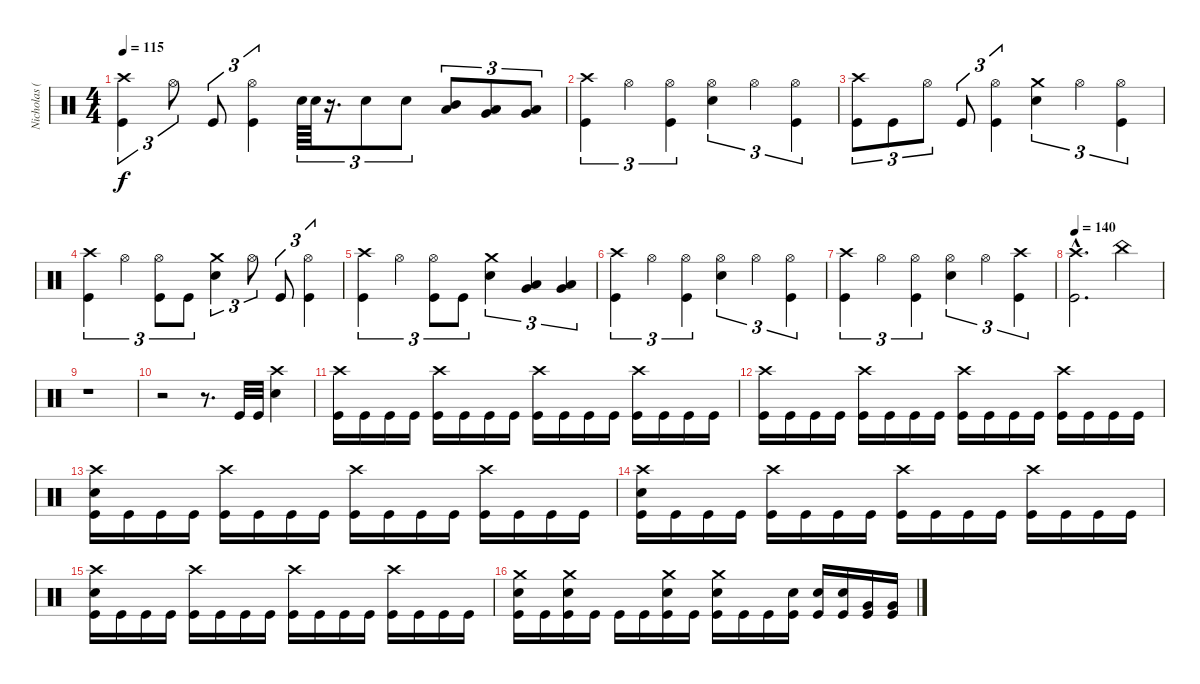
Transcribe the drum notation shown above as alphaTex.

\track ("Nicholas (Drums)" "Nicholas (") {instrument percussion}
\staff {score}
\articulation defaults
\ts (4 4)
\tempo 115
\clef neutral
\ks c
("Crash high (hit)" "Kick (hit)").4{tu (3 2) dy f} "Hi-Hat (open)".8{tu (3 2)} "Kick (hit)".8{tu (3 2)} ("Hi-Hat (open)" "Kick (hit)").4{tu (3 2)} "Electric Snare (hit)".64{tu (3 2)} "Electric Snare (hit)".64{tu (3 2)} r.16{d tu (3 2)} "Electric Snare (hit)".8{tu (3 2)} "Electric Snare (hit)".8{tu (3 2)} ("Mid Tom (hit)" "Low Tom (hit)").8{tu (3 2) bu 60} ("Low Tom (hit)" "Very Low Tom (hit)").8{tu (3 2) bu 60} ("Low Tom (hit)" "Very Low Tom (hit)").8{tu (3 2) bu 60} |
("Crash high (hit)" "Kick (hit)").4{tu (3 2)} "Hi-Hat (open)".4{tu (3 2)} ("Hi-Hat (open)" "Kick (hit)").4{tu (3 2)} ("Hi-Hat (open)" "Electric Snare (hit)").4{tu (3 2)} "Hi-Hat (open)".4{tu (3 2)} ("Hi-Hat (open)" "Kick (hit)").4{tu (3 2)} |
("Crash high (hit)" "Kick (hit)").8{tu (3 2)} "Kick (hit)".8{tu (3 2)} "Hi-Hat (open)".8{tu (3 2)} "Kick (hit)".8{tu (3 2)} ("Hi-Hat (open)" "Kick (hit)").4{tu (3 2)} ("Crash medium (hit)" "Electric Snare (hit)").4{tu (3 2)} "Hi-Hat (open)".4{tu (3 2)} ("Hi-Hat (open)" "Kick (hit)").4{tu (3 2)} |
("Crash high (hit)" "Kick (hit)").4{tu (3 2)} "Hi-Hat (open)".4{tu (3 2)} ("Hi-Hat (open)" "Kick (hit)").8{tu (3 2)} "Kick (hit)".8{tu (3 2)} ("Crash medium (hit)" "Electric Snare (hit)").4{tu (3 2)} "Hi-Hat (open)".8{tu (3 2)} "Kick (hit)".8{tu (3 2)} ("Hi-Hat (open)" "Kick (hit)").4{tu (3 2)} |
("Crash high (hit)" "Kick (hit)").4{tu (3 2)} "Hi-Hat (open)".4{tu (3 2)} ("Hi-Hat (open)" "Kick (hit)").8{tu (3 2)} "Kick (hit)".8{tu (3 2)} ("Crash medium (hit)" "Electric Snare (hit)").4{tu (3 2)} ("Low Tom (hit)" "Very Low Tom (hit)").4{tu (3 2) bu 60} ("Low Tom (hit)" "Very Low Tom (hit)").4{tu (3 2) bu 60} |
("Crash high (hit)" "Kick (hit)").4{tu (3 2)} "Hi-Hat (open)".4{tu (3 2)} ("Hi-Hat (open)" "Kick (hit)").4{tu (3 2)} ("Hi-Hat (open)" "Electric Snare (hit)").4{tu (3 2)} "Hi-Hat (open)".4{tu (3 2)} ("Hi-Hat (open)" "Kick (hit)").4{tu (3 2)} |
("Crash high (hit)" "Kick (hit)").4{tu (3 2)} "Hi-Hat (open)".4{tu (3 2)} ("Hi-Hat (open)" "Kick (hit)").4{tu (3 2)} ("Hi-Hat (open)" "Electric Snare (hit)").4{tu (3 2)} "Hi-Hat (open)".4{tu (3 2)} ("Crash high (hit)" "Kick (hit)").4{tu (3 2)} |
\tempo 140
("Crash high (hit)"{hac} "Kick (hit)"{hac}).2{d} "China (hit)".4 |
r.1 |
r.2 r.8{d} "Kick (hit)".32 "Kick (hit)".32 ("Crash high (hit)" "Electric Snare (hit)").4 |
("Crash high (hit)" "Kick (hit)").16 "Kick (hit)".16 "Kick (hit)".16 "Kick (hit)".16 ("Crash high (hit)" "Kick (hit)").16 "Kick (hit)".16 "Kick (hit)".16 "Kick (hit)".16 ("Crash high (hit)" "Kick (hit)").16 "Kick (hit)".16 "Kick (hit)".16 "Kick (hit)".16 ("Crash high (hit)" "Kick (hit)").16 "Kick (hit)".16 "Kick (hit)".16 "Kick (hit)".16 |
("Crash high (hit)" "Kick (hit)").16 "Kick (hit)".16 "Kick (hit)".16 "Kick (hit)".16 ("Crash high (hit)" "Kick (hit)").16 "Kick (hit)".16 "Kick (hit)".16 "Kick (hit)".16 ("Crash high (hit)" "Kick (hit)").16 "Kick (hit)".16 "Kick (hit)".16 "Kick (hit)".16 ("Crash high (hit)" "Kick (hit)").16 "Kick (hit)".16 "Kick (hit)".16 "Kick (hit)".16 |
("Crash high (hit)" "Electric Snare (hit)" "Kick (hit)").16 "Kick (hit)".16 "Kick (hit)".16 "Kick (hit)".16 ("Crash high (hit)" "Kick (hit)").16 "Kick (hit)".16 "Kick (hit)".16 "Kick (hit)".16 ("Crash high (hit)" "Kick (hit)").16 "Kick (hit)".16 "Kick (hit)".16 "Kick (hit)".16 ("Crash high (hit)" "Kick (hit)").16 "Kick (hit)".16 "Kick (hit)".16 "Kick (hit)".16 |
("Crash high (hit)" "Electric Snare (hit)" "Kick (hit)").16 "Kick (hit)".16 "Kick (hit)".16 "Kick (hit)".16 ("Crash high (hit)" "Kick (hit)").16 "Kick (hit)".16 "Kick (hit)".16 "Kick (hit)".16 ("Crash high (hit)" "Kick (hit)").16 "Kick (hit)".16 "Kick (hit)".16 "Kick (hit)".16 ("Crash high (hit)" "Kick (hit)").16 "Kick (hit)".16 "Kick (hit)".16 "Kick (hit)".16 |
("Crash high (hit)" "Electric Snare (hit)" "Kick (hit)").16 "Kick (hit)".16 "Kick (hit)".16 "Kick (hit)".16 ("Crash high (hit)" "Kick (hit)").16 "Kick (hit)".16 "Kick (hit)".16 "Kick (hit)".16 ("Crash high (hit)" "Kick (hit)").16 "Kick (hit)".16 "Kick (hit)".16 "Kick (hit)".16 ("Crash high (hit)" "Kick (hit)").16 "Kick (hit)".16 "Kick (hit)".16 "Kick (hit)".16 |
("Crash medium (hit)" "Electric Snare (hit)" "Kick (hit)").16 "Kick (hit)".16 ("Crash medium (hit)" "Electric Snare (hit)" "Kick (hit)").16 "Kick (hit)".16 "Kick (hit)".16 "Kick (hit)".16 ("Crash medium (hit)" "Electric Snare (hit)" "Kick (hit)").16 "Kick (hit)".16 ("Crash medium (hit)" "Electric Snare (hit)" "Kick (hit)").16 "Kick (hit)".16 "Kick (hit)".16 ("Electric Snare (hit)" "Kick (hit)").16 ("Electric Snare (hit)" "Kick (hit)").16 ("Electric Snare (hit)" "Kick (hit)").16 ("Very Low Tom (hit)" "Kick (hit)").16 ("Very Low Tom (hit)" "Kick (hit)").16
